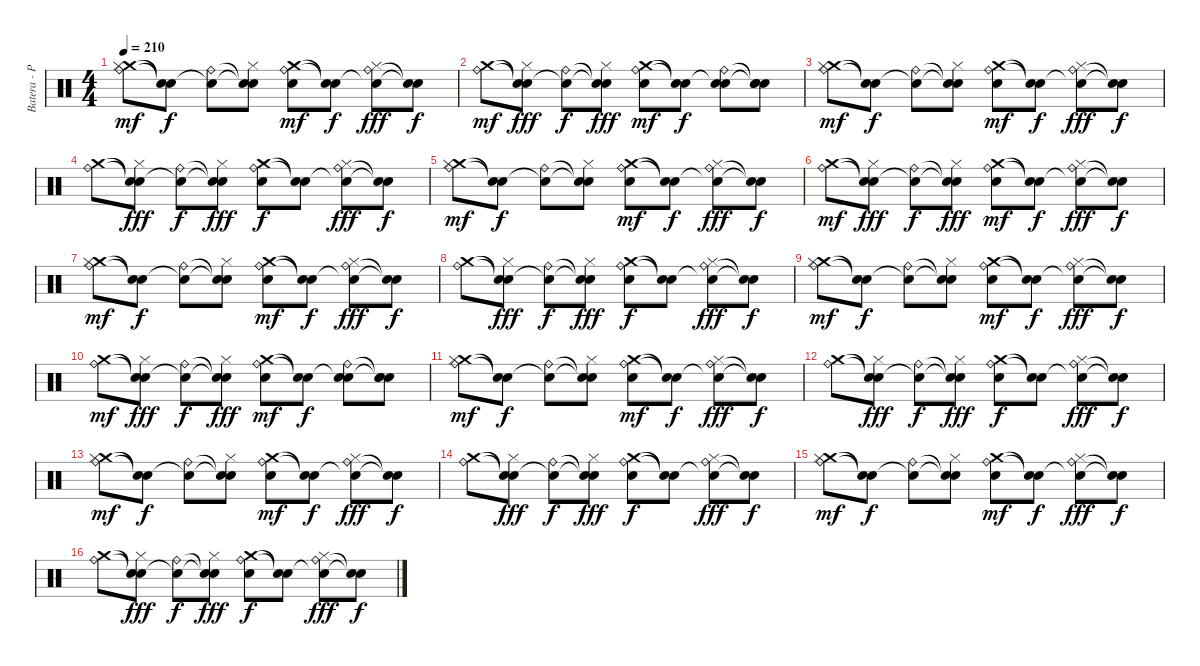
\track ("Batera - Pelado" "Batera - P") {instrument percussion}
\staff {score}
\articulation defaults
\ts (4 4)
\tempo 210
\clef neutral
\ks c
("Crash medium (hit)" "Ride (bell)" "Hi-Hat (closed)").8{dy mf} ("Snare (hit)"{t} "Snare (hit)"{t}).8{dy f} ("Snare (hit)"{t} "Ride (bell)").8 ("Snare (hit)"{t} "Snare (hit)"{t} "Hi-Hat (closed)").8 ("Crash medium (hit)" "Ride (bell)" "Electric Snare (hit)").8{dy mf} ("Snare (hit)"{t} "Snare (hit)"{t}).8{dy f} ("Snare (hit)"{t} "Ride (bell)" "Hi-Hat (closed)").8{dy fff} ("Snare (hit)"{t} "Snare (hit)"{t}).8{dy f} |
("Crash medium (hit)" "Ride (bell)").8{dy mf} ("Snare (hit)"{t} "Snare (hit)"{t} "Hi-Hat (closed)").8{dy fff} ("Snare (hit)"{t} "Ride (bell)").8{dy f} ("Snare (hit)"{t} "Snare (hit)"{t} "Hi-Hat (closed)").8{dy fff} ("Crash medium (hit)" "Ride (bell)" "Electric Snare (hit)").8{dy mf} ("Snare (hit)"{t} "Snare (hit)"{t}).8{dy f} ("Snare (hit)"{t} "Ride (bell)" "Electric Snare (hit)").8 ("Snare (hit)"{t} "Snare (hit)"{t} "Electric Snare (hit)").8 |
("Crash medium (hit)" "Ride (bell)" "Hi-Hat (closed)").8{dy mf} ("Snare (hit)"{t} "Snare (hit)"{t}).8{dy f} ("Snare (hit)"{t} "Ride (bell)").8 ("Snare (hit)"{t} "Snare (hit)"{t} "Hi-Hat (closed)").8 ("Crash medium (hit)" "Ride (bell)" "Electric Snare (hit)").8{dy mf} ("Snare (hit)"{t} "Snare (hit)"{t}).8{dy f} ("Snare (hit)"{t} "Ride (bell)" "Hi-Hat (closed)").8{dy fff} ("Snare (hit)"{t} "Snare (hit)"{t}).8{dy f} |
("Crash medium (hit)" "Ride (bell)").8 ("Snare (hit)"{t} "Snare (hit)"{t} "Hi-Hat (closed)").8{dy fff} ("Snare (hit)"{t} "Ride (bell)").8{dy f} ("Snare (hit)"{t} "Snare (hit)"{t} "Hi-Hat (closed)").8{dy fff} ("Crash medium (hit)" "Ride (bell)" "Electric Snare (hit)").8{dy f} ("Snare (hit)"{t} "Snare (hit)"{t}).8 ("Snare (hit)"{t} "Ride (bell)" "Hi-Hat (closed)").8{dy fff} ("Snare (hit)"{t} "Snare (hit)"{t}).8{dy f} |
("Crash medium (hit)" "Ride (bell)" "Hi-Hat (closed)").8{dy mf} ("Snare (hit)"{t} "Snare (hit)"{t}).8{dy f} ("Snare (hit)"{t} "Ride (bell)").8 ("Snare (hit)"{t} "Snare (hit)"{t} "Hi-Hat (closed)").8 ("Crash medium (hit)" "Ride (bell)" "Electric Snare (hit)").8{dy mf} ("Snare (hit)"{t} "Snare (hit)"{t}).8{dy f} ("Snare (hit)"{t} "Ride (bell)" "Hi-Hat (closed)").8{dy fff} ("Snare (hit)"{t} "Snare (hit)"{t}).8{dy f} |
("Crash medium (hit)" "Ride (bell)").8{dy mf} ("Snare (hit)"{t} "Snare (hit)"{t} "Hi-Hat (closed)").8{dy fff} ("Snare (hit)"{t} "Ride (bell)").8{dy f} ("Snare (hit)"{t} "Snare (hit)"{t} "Hi-Hat (closed)").8{dy fff} ("Crash medium (hit)" "Ride (bell)" "Electric Snare (hit)").8{dy mf} ("Snare (hit)"{t} "Snare (hit)"{t}).8{dy f} ("Snare (hit)"{t} "Ride (bell)" "Hi-Hat (closed)").8{dy fff} ("Snare (hit)"{t} "Snare (hit)"{t}).8{dy f} |
("Crash medium (hit)" "Ride (bell)" "Hi-Hat (closed)").8{dy mf} ("Snare (hit)"{t} "Snare (hit)"{t}).8{dy f} ("Snare (hit)"{t} "Ride (bell)").8 ("Snare (hit)"{t} "Snare (hit)"{t} "Hi-Hat (closed)").8 ("Crash medium (hit)" "Ride (bell)" "Electric Snare (hit)").8{dy mf} ("Snare (hit)"{t} "Snare (hit)"{t}).8{dy f} ("Snare (hit)"{t} "Ride (bell)" "Hi-Hat (closed)").8{dy fff} ("Snare (hit)"{t} "Snare (hit)"{t}).8{dy f} |
("Crash medium (hit)" "Ride (bell)").8 ("Snare (hit)"{t} "Snare (hit)"{t} "Hi-Hat (closed)").8{dy fff} ("Snare (hit)"{t} "Ride (bell)").8{dy f} ("Snare (hit)"{t} "Snare (hit)"{t} "Hi-Hat (closed)").8{dy fff} ("Crash medium (hit)" "Ride (bell)" "Electric Snare (hit)").8{dy f} ("Snare (hit)"{t} "Snare (hit)"{t}).8 ("Snare (hit)"{t} "Ride (bell)" "Hi-Hat (closed)").8{dy fff} ("Snare (hit)"{t} "Snare (hit)"{t}).8{dy f} |
("Crash medium (hit)" "Ride (bell)" "Hi-Hat (closed)").8{dy mf} ("Snare (hit)"{t} "Snare (hit)"{t}).8{dy f} ("Snare (hit)"{t} "Ride (bell)").8 ("Snare (hit)"{t} "Snare (hit)"{t} "Hi-Hat (closed)").8 ("Crash medium (hit)" "Ride (bell)" "Electric Snare (hit)").8{dy mf} ("Snare (hit)"{t} "Snare (hit)"{t}).8{dy f} ("Snare (hit)"{t} "Ride (bell)" "Hi-Hat (closed)").8{dy fff} ("Snare (hit)"{t} "Snare (hit)"{t}).8{dy f} |
("Crash medium (hit)" "Ride (bell)").8{dy mf} ("Snare (hit)"{t} "Snare (hit)"{t} "Hi-Hat (closed)").8{dy fff} ("Snare (hit)"{t} "Ride (bell)").8{dy f} ("Snare (hit)"{t} "Snare (hit)"{t} "Hi-Hat (closed)").8{dy fff} ("Crash medium (hit)" "Ride (bell)" "Electric Snare (hit)").8{dy mf} ("Snare (hit)"{t} "Snare (hit)"{t}).8{dy f} ("Snare (hit)"{t} "Ride (bell)" "Electric Snare (hit)").8 ("Snare (hit)"{t} "Snare (hit)"{t} "Electric Snare (hit)").8 |
("Crash medium (hit)" "Ride (bell)" "Hi-Hat (closed)").8{dy mf} ("Snare (hit)"{t} "Snare (hit)"{t}).8{dy f} ("Snare (hit)"{t} "Ride (bell)").8 ("Snare (hit)"{t} "Snare (hit)"{t} "Hi-Hat (closed)").8 ("Crash medium (hit)" "Ride (bell)" "Electric Snare (hit)").8{dy mf} ("Snare (hit)"{t} "Snare (hit)"{t}).8{dy f} ("Snare (hit)"{t} "Ride (bell)" "Hi-Hat (closed)").8{dy fff} ("Snare (hit)"{t} "Snare (hit)"{t}).8{dy f} |
("Crash medium (hit)" "Ride (bell)").8 ("Snare (hit)"{t} "Snare (hit)"{t} "Hi-Hat (closed)").8{dy fff} ("Snare (hit)"{t} "Ride (bell)").8{dy f} ("Snare (hit)"{t} "Snare (hit)"{t} "Hi-Hat (closed)").8{dy fff} ("Crash medium (hit)" "Ride (bell)" "Electric Snare (hit)").8{dy f} ("Snare (hit)"{t} "Snare (hit)"{t}).8 ("Snare (hit)"{t} "Ride (bell)" "Hi-Hat (closed)").8{dy fff} ("Snare (hit)"{t} "Snare (hit)"{t}).8{dy f} |
("Crash medium (hit)" "Ride (bell)" "Hi-Hat (closed)").8{dy mf} ("Snare (hit)"{t} "Snare (hit)"{t}).8{dy f} ("Snare (hit)"{t} "Ride (bell)").8 ("Snare (hit)"{t} "Snare (hit)"{t} "Hi-Hat (closed)").8 ("Crash medium (hit)" "Ride (bell)" "Electric Snare (hit)").8{dy mf} ("Snare (hit)"{t} "Snare (hit)"{t}).8{dy f} ("Snare (hit)"{t} "Ride (bell)" "Hi-Hat (closed)").8{dy fff} ("Snare (hit)"{t} "Snare (hit)"{t}).8{dy f} |
("Crash medium (hit)" "Ride (bell)").8 ("Snare (hit)"{t} "Snare (hit)"{t} "Hi-Hat (closed)").8{dy fff} ("Snare (hit)"{t} "Ride (bell)").8{dy f} ("Snare (hit)"{t} "Snare (hit)"{t} "Hi-Hat (closed)").8{dy fff} ("Crash medium (hit)" "Ride (bell)" "Electric Snare (hit)").8{dy f} ("Snare (hit)"{t} "Snare (hit)"{t}).8 ("Snare (hit)"{t} "Ride (bell)" "Hi-Hat (closed)").8{dy fff} ("Snare (hit)"{t} "Snare (hit)"{t}).8{dy f} |
("Crash medium (hit)" "Ride (bell)" "Hi-Hat (closed)").8{dy mf} ("Snare (hit)"{t} "Snare (hit)"{t}).8{dy f} ("Snare (hit)"{t} "Ride (bell)").8 ("Snare (hit)"{t} "Snare (hit)"{t} "Hi-Hat (closed)").8 ("Crash medium (hit)" "Ride (bell)" "Electric Snare (hit)").8{dy mf} ("Snare (hit)"{t} "Snare (hit)"{t}).8{dy f} ("Snare (hit)"{t} "Ride (bell)" "Hi-Hat (closed)").8{dy fff} ("Snare (hit)"{t} "Snare (hit)"{t}).8{dy f} |
("Crash medium (hit)" "Ride (bell)").8 ("Snare (hit)"{t} "Snare (hit)"{t} "Hi-Hat (closed)").8{dy fff} ("Snare (hit)"{t} "Ride (bell)").8{dy f} ("Snare (hit)"{t} "Snare (hit)"{t} "Hi-Hat (closed)").8{dy fff} ("Crash medium (hit)" "Ride (bell)" "Electric Snare (hit)").8{dy f} ("Snare (hit)"{t} "Snare (hit)"{t}).8 ("Snare (hit)"{t} "Ride (bell)" "Hi-Hat (closed)").8{dy fff} ("Snare (hit)"{t} "Snare (hit)"{t}).8{dy f}
